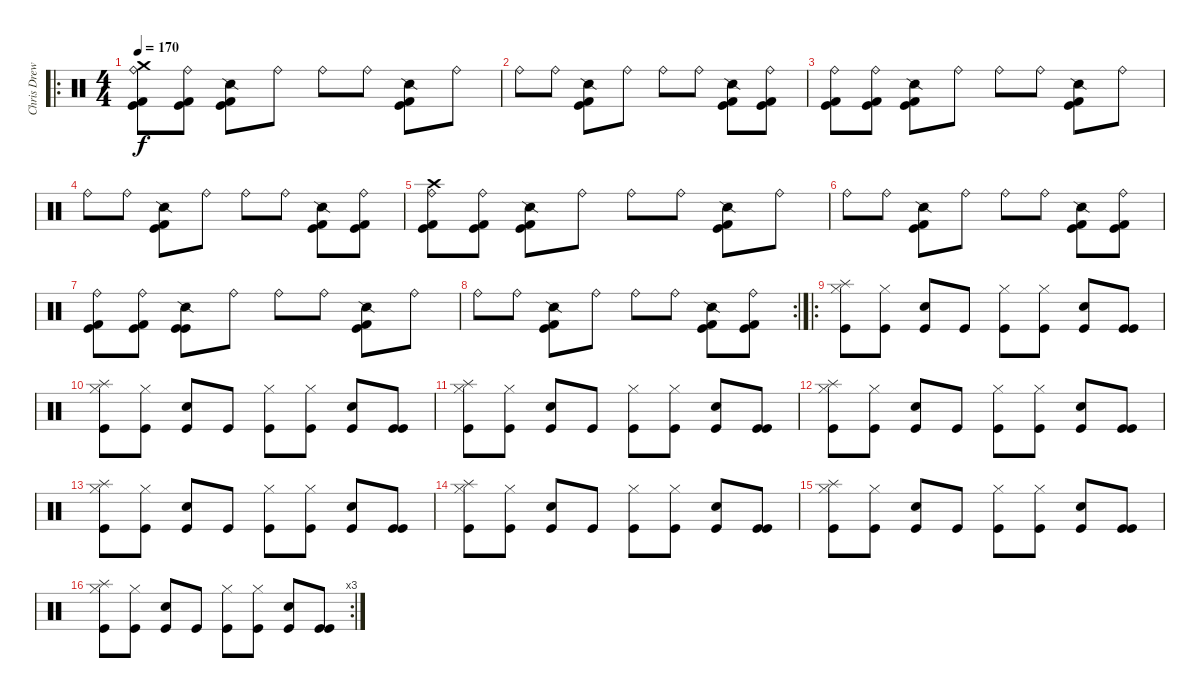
\track ("Chris Drews- Drums" "Chris Drew") {instrument percussion}
\staff {score}
\articulation defaults
\ro
\ts (4 4)
\tempo 170
\clef neutral
\ks c
("Kick (hit) 2" "Kick (hit)" "Ride (bell)" "Crash medium (hit)").8{dy f} ("Kick (hit) 2" "Kick (hit)" "Ride (bell)").8 ("Kick (hit)" "Kick (hit) 2" "Snare (side stick) 2").8 "Ride (bell)".8 "Ride (bell)".8 "Ride (bell)".8 ("Kick (hit)" "Kick (hit) 2" "Snare (side stick) 2").8 "Ride (bell)".8 |
"Ride (bell)".8 "Ride (bell)".8 ("Kick (hit) 2" "Kick (hit)" "Snare (side stick) 2").8 "Ride (bell)".8 "Ride (bell)".8 "Ride (bell)".8 ("Kick (hit) 2" "Kick (hit)" "Snare (side stick) 2").8 ("Kick (hit)" "Kick (hit) 2" "Ride (bell)").8 |
("Kick (hit)" "Kick (hit) 2" "Ride (bell)").8 ("Kick (hit)" "Kick (hit) 2" "Ride (bell)").8 ("Kick (hit)" "Kick (hit) 2" "Snare (side stick) 2").8 "Ride (bell)".8 "Ride (bell)".8 "Ride (bell)".8 ("Kick (hit)" "Kick (hit) 2" "Snare (side stick) 2").8 "Ride (bell)".8 |
"Ride (bell)".8 "Ride (bell)".8 ("Kick (hit)" "Kick (hit) 2" "Snare (side stick) 2").8 "Ride (bell)".8 "Ride (bell)".8 "Ride (bell)".8 ("Kick (hit)" "Kick (hit) 2" "Snare (side stick) 2").8 ("Kick (hit) 2" "Kick (hit)" "Ride (bell)").8 |
("Kick (hit) 2" "Kick (hit)" "Ride (bell)" "Crash high (hit)").8 ("Kick (hit) 2" "Kick (hit)" "Ride (bell)").8 ("Kick (hit) 2" "Kick (hit)" "Snare (side stick) 2").8 "Ride (bell)".8 "Ride (bell)".8 "Ride (bell)".8 ("Kick (hit) 2" "Kick (hit)" "Snare (side stick) 2").8 "Ride (bell)".8 |
"Ride (bell)".8 "Ride (bell)".8 ("Kick (hit) 2" "Kick (hit)" "Snare (side stick) 2").8 "Ride (bell)".8 "Ride (bell)".8 "Ride (bell)".8 ("Kick (hit) 2" "Kick (hit)" "Snare (side stick) 2").8 ("Kick (hit)" "Kick (hit) 2" "Ride (bell)").8 |
("Kick (hit)" "Kick (hit) 2" "Ride (bell)").8 ("Kick (hit)" "Kick (hit) 2" "Ride (bell)").8 ("Kick (hit)" "Kick (hit)" "Snare (side stick) 2").8 "Ride (bell)".8 "Ride (bell)".8 "Ride (bell)".8 ("Kick (hit) 2" "Kick (hit)" "Snare (side stick) 2").8 "Ride (bell)".8 |
\rc 2 "Ride (bell)".8 "Ride (bell)".8
("Kick (hit) 2" "Kick (hit)" "Snare (side stick) 2").8 "Ride (bell)".8 "Ride (bell)".8 "Ride (bell)".8 ("Kick (hit) 2" "Kick (hit)" "Snare (side stick) 2").8 ("Kick (hit)" "Kick (hit) 2" "Ride (bell)").8 |
\ro
("Kick (hit)" "Hi-Hat (closed)" "Splash (hit)").8 ("Kick (hit)" "Hi-Hat (closed)").8 ("Kick (hit)" "Snare (hit) 2").8 "Kick (hit)".8 ("Kick (hit)" "Hi-Hat (closed)").8 ("Kick (hit)" "Hi-Hat (closed)").8 ("Kick (hit)" "Snare (hit) 2").8 ("Kick (hit)" "Kick (hit)").8 |
("Kick (hit)" "Hi-Hat (closed)" "Splash (hit)").8 ("Kick (hit)" "Hi-Hat (closed)").8 ("Kick (hit)" "Snare (hit) 2").8 "Kick (hit)".8 ("Kick (hit)" "Hi-Hat (closed)").8 ("Kick (hit)" "Hi-Hat (closed)").8 ("Kick (hit)" "Snare (hit) 2").8 ("Kick (hit)" "Kick (hit)").8 |
("Kick (hit)" "Hi-Hat (closed)" "Splash (hit)").8 ("Kick (hit)" "Hi-Hat (closed)").8 ("Kick (hit)" "Snare (hit) 2").8 "Kick (hit)".8 ("Kick (hit)" "Hi-Hat (closed)").8 ("Kick (hit)" "Hi-Hat (closed)").8 ("Kick (hit)" "Snare (hit) 2").8 ("Kick (hit)" "Kick (hit)").8 |
("Kick (hit)" "Hi-Hat (closed)" "Splash (hit)").8 ("Kick (hit)" "Hi-Hat (closed)").8 ("Kick (hit)" "Snare (hit) 2").8 "Kick (hit)".8 ("Kick (hit)" "Hi-Hat (closed)").8 ("Kick (hit)" "Hi-Hat (closed)").8 ("Kick (hit)" "Snare (hit) 2").8 ("Kick (hit)" "Kick (hit)").8 |
("Kick (hit)" "Hi-Hat (closed)" "Splash (hit)").8 ("Kick (hit)" "Hi-Hat (closed)").8 ("Kick (hit)" "Snare (hit) 2").8 "Kick (hit)".8 ("Kick (hit)" "Hi-Hat (closed)").8 ("Kick (hit)" "Hi-Hat (closed)").8 ("Kick (hit)" "Snare (hit) 2").8 ("Kick (hit)" "Kick (hit)").8 |
("Kick (hit)" "Hi-Hat (closed)" "Splash (hit)").8 ("Kick (hit)" "Hi-Hat (closed)").8 ("Kick (hit)" "Snare (hit) 2").8 "Kick (hit)".8 ("Kick (hit)" "Hi-Hat (closed)").8 ("Kick (hit)" "Hi-Hat (closed)").8 ("Kick (hit)" "Snare (hit) 2").8 ("Kick (hit)" "Kick (hit)").8 |
("Kick (hit)" "Hi-Hat (closed)" "Splash (hit)").8 ("Kick (hit)" "Hi-Hat (closed)").8 ("Kick (hit)" "Snare (hit) 2").8 "Kick (hit)".8 ("Kick (hit)" "Hi-Hat (closed)").8 ("Kick (hit)" "Hi-Hat (closed)").8 ("Kick (hit)" "Snare (hit) 2").8 ("Kick (hit)" "Kick (hit)").8 |
\rc 3
("Kick (hit)" "Hi-Hat (closed)" "Splash (hit)").8 ("Kick (hit)" "Hi-Hat (closed)").8 ("Kick (hit)" "Snare (hit) 2").8 "Kick (hit)".8 ("Kick (hit)" "Hi-Hat (closed)").8 ("Kick (hit)" "Hi-Hat (closed)").8 ("Kick (hit)" "Snare (hit) 2").8 ("Kick (hit)" "Kick (hit)").8
